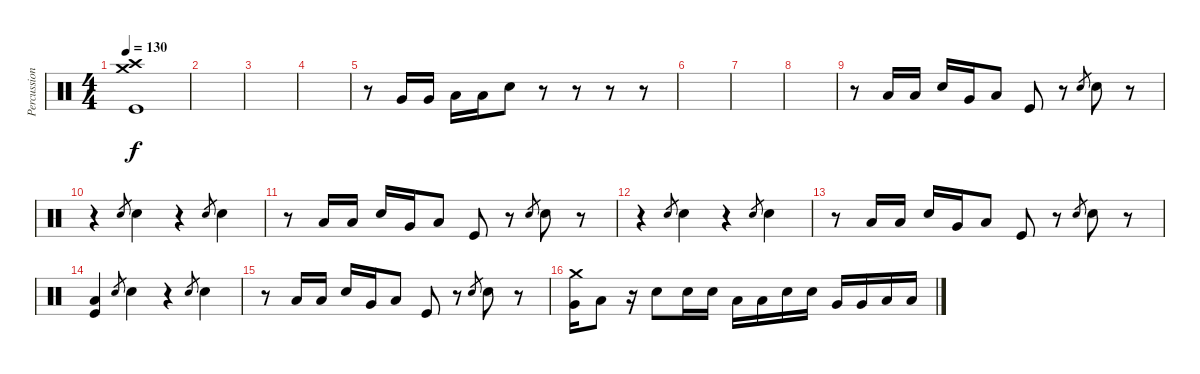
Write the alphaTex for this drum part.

\track ("Percussion" "Percussion") {instrument percussion}
\staff {score}
\articulation defaults
\ts (4 4)
\tempo 130
\clef neutral
\ks c
("Crash high (hit)" "Crash medium (hit)" "Kick (hit)").1{dy f} |
|
|
|
r.8 "Very Low Tom (hit)".16 "Very Low Tom (hit)".16 "Low Floor Tom (hit)".16 "Low Floor Tom (hit)".16 "Electric Snare (hit)".8 r.8 r.8 r.8 r.8 |
|
|
|
r.8 "Low Tom (hit)".16 "Low Tom (hit)".16 "Electric Snare (hit)".16 "Very Low Tom (hit)".16 "Low Floor Tom (hit)".8 "Kick (hit)".8 r.8 "Electric Snare (hit)".8{gr} "Electric Snare (hit)".8 r.8 |
r.4 "Electric Snare (hit)".8{gr} "Electric Snare (hit)".4 r.4 "Electric Snare (hit)".8{gr} "Electric Snare (hit)".4 |
r.8 "Low Tom (hit)".16 "Low Tom (hit)".16 "Electric Snare (hit)".16 "Very Low Tom (hit)".16 "Low Floor Tom (hit)".8 "Kick (hit)".8 r.8 "Electric Snare (hit)".8{gr} "Electric Snare (hit)".8 r.8 |
r.4 "Electric Snare (hit)".8{gr} "Electric Snare (hit)".4 r.4 "Electric Snare (hit)".8{gr} "Electric Snare (hit)".4 |
r.8 "Low Tom (hit)".16 "Low Tom (hit)".16 "Electric Snare (hit)".16 "Very Low Tom (hit)".16 "Low Floor Tom (hit)".8 "Kick (hit)".8 r.8 "Electric Snare (hit)".8{gr} "Electric Snare (hit)".8 r.8 |
("Low Floor Tom (hit)" "Kick (hit)").4 "Electric Snare (hit)".8{gr} "Electric Snare (hit)".4 r.4 "Electric Snare (hit)".8{gr} "Electric Snare (hit)".4 |
r.8 "Low Tom (hit)".16 "Low Tom (hit)".16 "Electric Snare (hit)".16 "Very Low Tom (hit)".16 "Low Floor Tom (hit)".8 "Kick (hit)".8 r.8 "Electric Snare (hit)".8{gr} "Electric Snare (hit)".8 r.8 |
("Crash medium (hit)" "Very Low Tom (hit)").16 "Low Floor Tom (hit)".8 r.16 "Electric Snare (hit)".8 "Electric Snare (hit)".16 "Electric Snare (hit)".16 "Low Tom (hit)".16 "Low Tom (hit)".16 "Electric Snare (hit)".16 "Electric Snare (hit)".16 "Very Low Tom (hit)".16 "Very Low Tom (hit)".16 "Low Floor Tom (hit)".16 "Low Floor Tom (hit)".16
